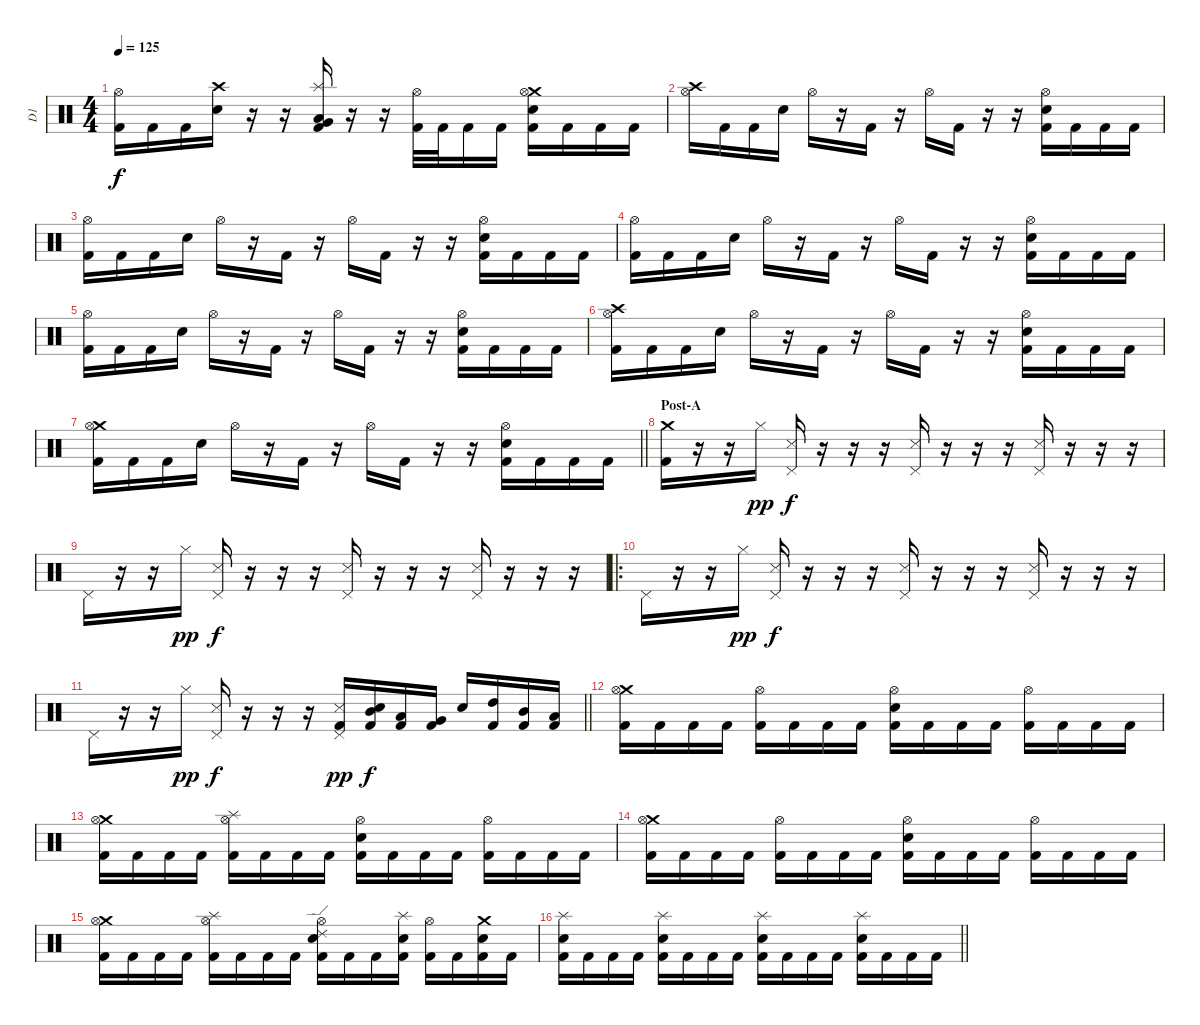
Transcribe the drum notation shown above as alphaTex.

\track ("D1" "D1") {instrument percussion}
\staff {score}
\articulation defaults
\ts (4 4)
\tempo 125
\clef neutral
\ks c
("Hi-Hat (open)" "Kick (hit) 2").16{dy f} "Kick (hit) 2".16 "Kick (hit) 2".16 ("Crash high (hit)" "Snare (hit) 2").16 r.16 r.16 ("Splash (hit)" "Very Low Tom (hit)" "Low Tom (hit)" "Kick (hit) 2").16 r.16 r.16 ("Hi-Hat (open)" "Kick (hit) 2").32 "Kick (hit) 2".32 "Kick (hit) 2".16 "Kick (hit) 2".16 ("Crash medium (hit)" "Hi-Hat (open)" "Snare (hit) 2" "Kick (hit) 2").16 "Kick (hit) 2".16 "Kick (hit) 2".16 "Kick (hit) 2".16 |
("Crash high (hit)" "Hi-Hat (open)").16 "Kick (hit) 2".16 "Kick (hit) 2".16 "Snare (hit) 2".16 "Hi-Hat (open)".16 r.16 "Kick (hit) 2".16 r.16 "Hi-Hat (open)".16 "Kick (hit) 2".16 r.16 r.16 ("Hi-Hat (open)" "Snare (hit) 2" "Kick (hit) 2").16 "Kick (hit) 2".16 "Kick (hit) 2".16 "Kick (hit) 2".16 |
("Hi-Hat (open)" "Kick (hit) 2").16 "Kick (hit) 2".16 "Kick (hit) 2".16 "Snare (hit) 2".16 "Hi-Hat (open)".16 r.16 "Kick (hit) 2".16 r.16 "Hi-Hat (open)".16 "Kick (hit) 2".16 r.16 r.16 ("Hi-Hat (open)" "Snare (hit) 2" "Kick (hit) 2").16 "Kick (hit) 2".16 "Kick (hit) 2".16 "Kick (hit) 2".16 |
("Hi-Hat (open)" "Kick (hit) 2").16 "Kick (hit) 2".16 "Kick (hit) 2".16 "Snare (hit) 2".16 "Hi-Hat (open)".16 r.16 "Kick (hit) 2".16 r.16 "Hi-Hat (open)".16 "Kick (hit) 2".16 r.16 r.16 ("Hi-Hat (open)" "Snare (hit) 2" "Kick (hit) 2").16 "Kick (hit) 2".16 "Kick (hit) 2".16 "Kick (hit) 2".16 |
("Hi-Hat (open)" "Kick (hit) 2").16 "Kick (hit) 2".16 "Kick (hit) 2".16 "Snare (hit) 2".16 "Hi-Hat (open)".16 r.16 "Kick (hit) 2".16 r.16 "Hi-Hat (open)".16 "Kick (hit) 2".16 r.16 r.16 ("Hi-Hat (open)" "Snare (hit) 2" "Kick (hit) 2").16 "Kick (hit) 2".16 "Kick (hit) 2".16 "Kick (hit) 2".16 |
("Crash high (hit)" "Hi-Hat (open)" "Kick (hit) 2").16 "Kick (hit) 2".16 "Kick (hit) 2".16 "Snare (hit) 2".16 "Hi-Hat (open)".16 r.16 "Kick (hit) 2".16 r.16 "Hi-Hat (open)".16 "Kick (hit) 2".16 r.16 r.16 ("Hi-Hat (open)" "Snare (hit) 2" "Kick (hit) 2").16 "Kick (hit) 2".16 "Kick (hit) 2".16 "Kick (hit) 2".16 |
\barLineRight lightlight
("Crash medium (hit)" "Hi-Hat (open)" "Kick (hit) 2").16 "Kick (hit) 2".16 "Kick (hit) 2".16 "Snare (hit) 2".16 "Hi-Hat (open)".16 r.16 "Kick (hit) 2".16 r.16 "Hi-Hat (open)".16 "Kick (hit) 2".16 r.16 r.16 ("Hi-Hat (open)" "Snare (hit) 2" "Kick (hit) 2").16 "Kick (hit) 2".16 "Kick (hit) 2".16 "Kick (hit) 2".16 |
\section ("" "Post-A")
("Crash medium (hit)" "Kick (hit) 2").16 r.16 r.16 "Hi-Hat (closed)".16{dy pp} ("Pedal Hi-Hat (hit)" "Metronome (hit)").16{dy f} r.16 r.16 r.16 ("Pedal Hi-Hat (hit)" "Metronome (hit)").16 r.16 r.16 r.16 ("Pedal Hi-Hat (hit)" "Metronome (hit)").16 r.16 r.16 r.16 |
"Pedal Hi-Hat (hit)".16 r.16 r.16 "Hi-Hat (closed)".16{dy pp} ("Pedal Hi-Hat (hit)" "Metronome (hit)").16{dy f} r.16 r.16 r.16 ("Pedal Hi-Hat (hit)" "Metronome (hit)").16 r.16 r.16 r.16 ("Pedal Hi-Hat (hit)" "Metronome (hit)").16 r.16 r.16 r.16 |
\ro "Pedal Hi-Hat (hit)".16
r.16 r.16 "Hi-Hat (closed)".16{dy pp} ("Pedal Hi-Hat (hit)" "Metronome (hit)").16{dy f} r.16 r.16 r.16 ("Pedal Hi-Hat (hit)" "Metronome (hit)").16 r.16 r.16 r.16 ("Pedal Hi-Hat (hit)" "Metronome (hit)").16 r.16 r.16 r.16 |
\barLineRight lightlight "Pedal Hi-Hat (hit)".16
r.16 r.16 "Hi-Hat (closed)".16{dy pp} ("Pedal Hi-Hat (hit)" "Metronome (hit)").16{dy f} r.16 r.16 r.16 ("Pedal Hi-Hat (hit)" "Metronome (hit)" "Kick (hit) 2").16{dy pp} ("Mid Tom (hit)" "Snare (hit) 2" "Kick (hit) 2").16{dy f} ("Low Tom (hit)" "Kick (hit) 2").16 ("Very Low Tom (hit)" "Kick (hit) 2").16 "Snare (hit) 2".16 ("High Tom (hit)" "Kick (hit) 2").16 ("Mid Tom (hit)" "Kick (hit) 2").16 ("Low Tom (hit)" "Kick (hit) 2").16 |
\section ("" "")
("Crash medium (hit)" "Hi-Hat (open)" "Kick (hit) 2").16 "Kick (hit) 2".16 "Kick (hit) 2".16 "Kick (hit) 2".16 ("Hi-Hat (open)" "Kick (hit) 2").16 "Kick (hit) 2".16 "Kick (hit) 2".16 "Kick (hit) 2".16 ("Hi-Hat (open)" "Snare (hit) 2" "Kick (hit) 2").16 "Kick (hit) 2".16 "Kick (hit) 2".16 "Kick (hit) 2".16 ("Hi-Hat (open)" "Kick (hit) 2").16 "Kick (hit) 2".16 "Kick (hit) 2".16 "Kick (hit) 2".16 |
("Crash medium (hit)" "Hi-Hat (open)" "Kick (hit) 2").16 "Kick (hit) 2".16 "Kick (hit) 2".16 "Kick (hit) 2".16 ("Splash (hit)" "Hi-Hat (open)" "Kick (hit) 2").16 "Kick (hit) 2".16 "Kick (hit) 2".16 "Kick (hit) 2".16 ("Hi-Hat (open)" "Snare (hit) 2" "Kick (hit) 2").16 "Kick (hit) 2".16 "Kick (hit) 2".16 "Kick (hit) 2".16 ("Hi-Hat (open)" "Kick (hit) 2").16 "Kick (hit) 2".16 "Kick (hit) 2".16 "Kick (hit) 2".16 |
("Crash medium (hit)" "Hi-Hat (open)" "Kick (hit) 2").16 "Kick (hit) 2".16 "Kick (hit) 2".16 "Kick (hit) 2".16 ("Hi-Hat (open)" "Kick (hit) 2").16 "Kick (hit) 2".16 "Kick (hit) 2".16 "Kick (hit) 2".16 ("Hi-Hat (open)" "Snare (hit) 2" "Kick (hit) 2").16 "Kick (hit) 2".16 "Kick (hit) 2".16 "Kick (hit) 2".16 ("Hi-Hat (open)" "Kick (hit) 2").16 "Kick (hit) 2".16 "Kick (hit) 2".16 "Kick (hit) 2".16 |
("Crash medium (hit)" "Hi-Hat (open)" "Kick (hit) 2").16 "Kick (hit) 2".16 "Kick (hit) 2".16 "Kick (hit) 2".16 ("Splash (hit)" "Hi-Hat (open)" "Kick (hit) 2").16 "Kick (hit) 2".16 "Kick (hit) 2".16 "Kick (hit) 2".16 ("Ride (edge) 2" "Hi-Hat (open)" "Snare (hit) 2" "Kick (hit) 2").16 "Kick (hit) 2".16 "Kick (hit) 2".16 ("Splash (hit)" "Snare (hit) 2" "Kick (hit) 2").16 ("Hi-Hat (open)" "Kick (hit) 2").16 "Kick (hit) 2".16 ("Crash medium (hit)" "Snare (hit) 2" "Kick (hit) 2").16 "Kick (hit) 2".16 |
\barLineRight lightlight
("Splash (hit)" "Snare (hit) 2" "Kick (hit) 2").16 "Kick (hit) 2".16 "Kick (hit) 2".16 "Kick (hit) 2".16 ("Splash (hit)" "Snare (hit) 2" "Kick (hit) 2").16 "Kick (hit) 2".16 "Kick (hit) 2".16 "Kick (hit) 2".16 ("Splash (hit)" "Snare (hit) 2" "Kick (hit) 2").16 "Kick (hit) 2".16 "Kick (hit) 2".16 "Kick (hit) 2".16 ("Splash (hit)" "Snare (hit) 2" "Kick (hit) 2").16 "Kick (hit) 2".16 "Kick (hit) 2".16 "Kick (hit) 2".16
